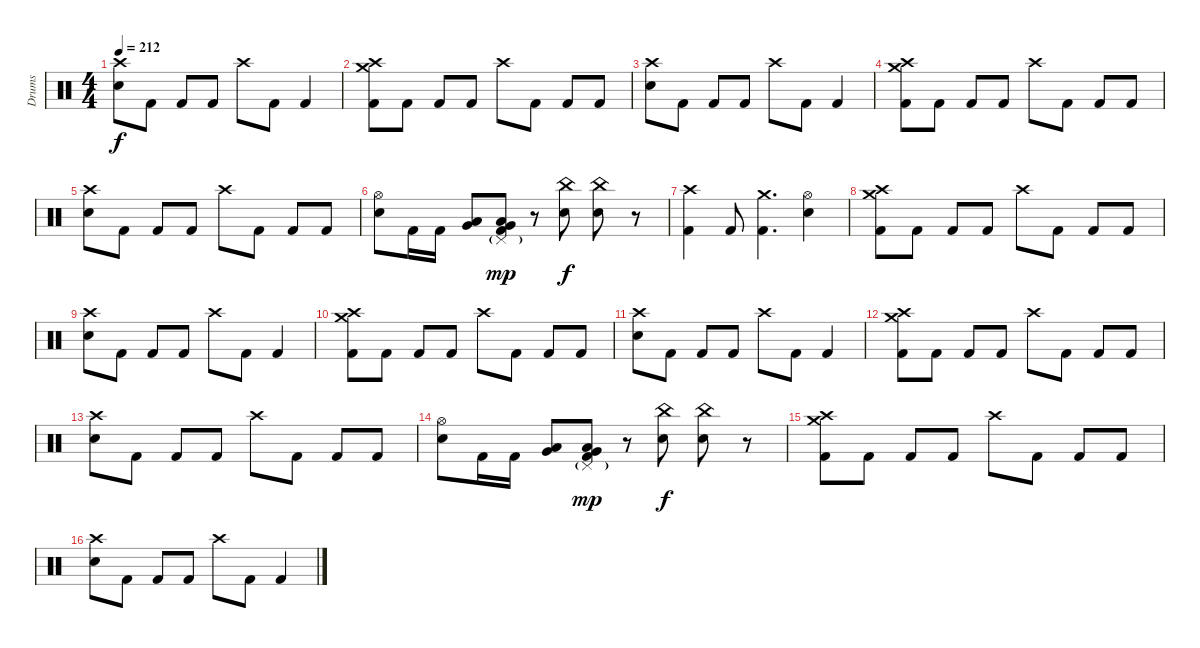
\track ("Drums" "Drums") {instrument percussion}
\staff {score}
\articulation defaults
\ts (4 4)
\tempo 212
\clef neutral
\ks c
("Crash high (hit)" "Electric Snare (hit)").8{dy f} "Kick (hit) 2".8 "Kick (hit) 2".8 "Kick (hit) 2".8 "Crash high (hit)".8 "Kick (hit) 2".8 "Kick (hit) 2".4 |
("Crash medium (hit)" "Crash high (hit)" "Kick (hit) 2").8 "Kick (hit) 2".8 "Kick (hit) 2".8 "Kick (hit) 2".8 "Crash high (hit)".8 "Kick (hit) 2".8 "Kick (hit) 2".8 "Kick (hit) 2".8 |
("Crash high (hit)" "Electric Snare (hit)").8 "Kick (hit) 2".8 "Kick (hit) 2".8 "Kick (hit) 2".8 "Crash high (hit)".8 "Kick (hit) 2".8 "Kick (hit) 2".4 |
("Crash medium (hit)" "Crash high (hit)" "Kick (hit) 2").8 "Kick (hit) 2".8 "Kick (hit) 2".8 "Kick (hit) 2".8 "Crash high (hit)".8 "Kick (hit) 2".8 "Kick (hit) 2".8 "Kick (hit) 2".8 |
("Crash high (hit)" "Electric Snare (hit)").8 "Kick (hit) 2".8 "Kick (hit) 2".8 "Kick (hit) 2".8 "Crash high (hit)".8 "Kick (hit) 2".8 "Kick (hit) 2".8 "Kick (hit) 2".8 |
("Hi-Hat (open)" "Electric Snare (hit)").8 "Kick (hit) 2".16 "Kick (hit) 2".16 ("Low Tom (hit)" "Very Low Tom (hit)").8 ("Pedal Hi-Hat (hit)"{g} "Low Tom (hit)" "Very Low Tom (hit)" "Kick (hit) 2").8{dy mp} r.8 ("China (hit)" "Electric Snare (hit)").8{dy f} ("China (hit)" "Electric Snare (hit)").8 r.8 |
("Crash high (hit)" "Kick (hit) 2").4 "Kick (hit) 2".8 ("Crash medium (hit)" "Kick (hit) 2").4{d} ("Hi-Hat (open)" "Electric Snare (hit)").4 |
("Crash medium (hit)" "Crash high (hit)" "Kick (hit) 2").8 "Kick (hit) 2".8 "Kick (hit) 2".8 "Kick (hit) 2".8 "Crash high (hit)".8 "Kick (hit) 2".8 "Kick (hit) 2".8 "Kick (hit) 2".8 |
("Crash high (hit)" "Electric Snare (hit)").8 "Kick (hit) 2".8 "Kick (hit) 2".8 "Kick (hit) 2".8 "Crash high (hit)".8 "Kick (hit) 2".8 "Kick (hit) 2".4 |
("Crash medium (hit)" "Crash high (hit)" "Kick (hit) 2").8 "Kick (hit) 2".8 "Kick (hit) 2".8 "Kick (hit) 2".8 "Crash high (hit)".8 "Kick (hit) 2".8 "Kick (hit) 2".8 "Kick (hit) 2".8 |
("Crash high (hit)" "Electric Snare (hit)").8 "Kick (hit) 2".8 "Kick (hit) 2".8 "Kick (hit) 2".8 "Crash high (hit)".8 "Kick (hit) 2".8 "Kick (hit) 2".4 |
("Crash medium (hit)" "Crash high (hit)" "Kick (hit) 2").8 "Kick (hit) 2".8 "Kick (hit) 2".8 "Kick (hit) 2".8 "Crash high (hit)".8 "Kick (hit) 2".8 "Kick (hit) 2".8 "Kick (hit) 2".8 |
("Crash high (hit)" "Electric Snare (hit)").8 "Kick (hit) 2".8 "Kick (hit) 2".8 "Kick (hit) 2".8 "Crash high (hit)".8 "Kick (hit) 2".8 "Kick (hit) 2".8 "Kick (hit) 2".8 |
("Hi-Hat (open)" "Electric Snare (hit)").8 "Kick (hit) 2".16 "Kick (hit) 2".16 ("Low Tom (hit)" "Very Low Tom (hit)").8 ("Pedal Hi-Hat (hit)"{g} "Low Tom (hit)" "Very Low Tom (hit)" "Kick (hit) 2").8{dy mp} r.8 ("China (hit)" "Electric Snare (hit)").8{dy f} ("China (hit)" "Electric Snare (hit)").8 r.8 |
("Crash medium (hit)" "Crash high (hit)" "Kick (hit) 2").8 "Kick (hit) 2".8 "Kick (hit) 2".8 "Kick (hit) 2".8 "Crash high (hit)".8 "Kick (hit) 2".8 "Kick (hit) 2".8 "Kick (hit) 2".8 |
("Crash high (hit)" "Electric Snare (hit)").8 "Kick (hit) 2".8 "Kick (hit) 2".8 "Kick (hit) 2".8 "Crash high (hit)".8 "Kick (hit) 2".8 "Kick (hit) 2".4
